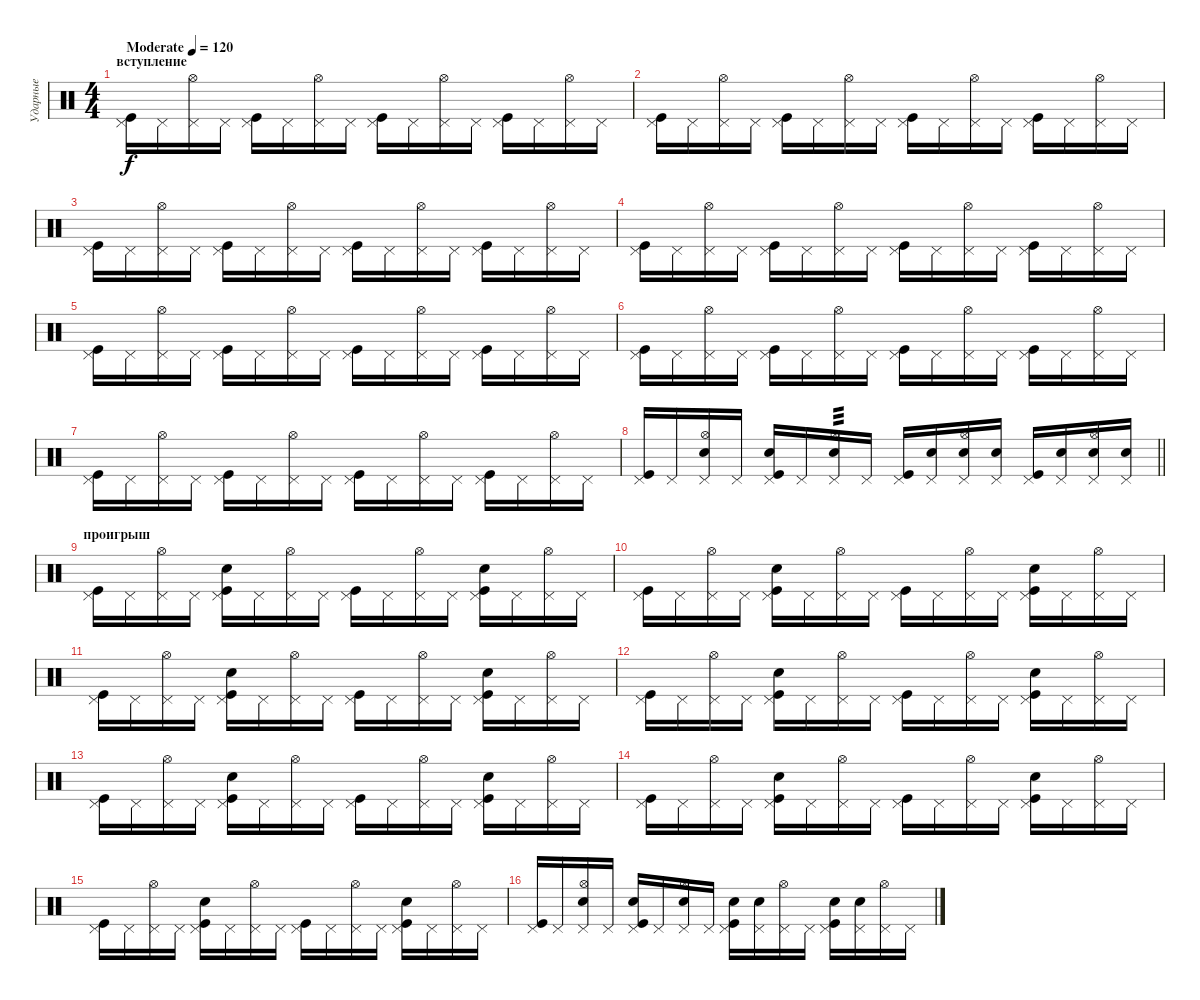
\track ("Ударные" "Ударные") {instrument percussion}
\staff {score}
\articulation defaults
\ts (4 4)
\section ("" "вступление")
\tempo (120 "Moderate")
\clef neutral
\ks c
("Pedal Hi-Hat (hit)" "Kick (hit)").16{dy f} "Pedal Hi-Hat (hit)".16 ("Pedal Hi-Hat (hit)" "Hi-Hat (open)").16 "Pedal Hi-Hat (hit)".16 ("Pedal Hi-Hat (hit)" "Kick (hit)").16 "Pedal Hi-Hat (hit)".16 ("Pedal Hi-Hat (hit)" "Hi-Hat (open)").16 "Pedal Hi-Hat (hit)".16 ("Pedal Hi-Hat (hit)" "Kick (hit)").16 "Pedal Hi-Hat (hit)".16 ("Pedal Hi-Hat (hit)" "Hi-Hat (open)").16 "Pedal Hi-Hat (hit)".16 ("Pedal Hi-Hat (hit)" "Kick (hit)").16 "Pedal Hi-Hat (hit)".16 ("Pedal Hi-Hat (hit)" "Hi-Hat (open)").16 "Pedal Hi-Hat (hit)".16 |
("Pedal Hi-Hat (hit)" "Kick (hit)").16 "Pedal Hi-Hat (hit)".16 ("Pedal Hi-Hat (hit)" "Hi-Hat (open)").16 "Pedal Hi-Hat (hit)".16 ("Pedal Hi-Hat (hit)" "Kick (hit)").16 "Pedal Hi-Hat (hit)".16 ("Pedal Hi-Hat (hit)" "Hi-Hat (open)").16 "Pedal Hi-Hat (hit)".16 ("Pedal Hi-Hat (hit)" "Kick (hit)").16 "Pedal Hi-Hat (hit)".16 ("Pedal Hi-Hat (hit)" "Hi-Hat (open)").16 "Pedal Hi-Hat (hit)".16 ("Pedal Hi-Hat (hit)" "Kick (hit)").16 "Pedal Hi-Hat (hit)".16 ("Pedal Hi-Hat (hit)" "Hi-Hat (open)").16 "Pedal Hi-Hat (hit)".16 |
("Pedal Hi-Hat (hit)" "Kick (hit)").16 "Pedal Hi-Hat (hit)".16 ("Pedal Hi-Hat (hit)" "Hi-Hat (open)").16 "Pedal Hi-Hat (hit)".16 ("Pedal Hi-Hat (hit)" "Kick (hit)").16 "Pedal Hi-Hat (hit)".16 ("Pedal Hi-Hat (hit)" "Hi-Hat (open)").16 "Pedal Hi-Hat (hit)".16 ("Pedal Hi-Hat (hit)" "Kick (hit)").16 "Pedal Hi-Hat (hit)".16 ("Pedal Hi-Hat (hit)" "Hi-Hat (open)").16 "Pedal Hi-Hat (hit)".16 ("Pedal Hi-Hat (hit)" "Kick (hit)").16 "Pedal Hi-Hat (hit)".16 ("Pedal Hi-Hat (hit)" "Hi-Hat (open)").16 "Pedal Hi-Hat (hit)".16 |
("Pedal Hi-Hat (hit)" "Kick (hit)").16 "Pedal Hi-Hat (hit)".16 ("Pedal Hi-Hat (hit)" "Hi-Hat (open)").16 "Pedal Hi-Hat (hit)".16 ("Pedal Hi-Hat (hit)" "Kick (hit)").16 "Pedal Hi-Hat (hit)".16 ("Pedal Hi-Hat (hit)" "Hi-Hat (open)").16 "Pedal Hi-Hat (hit)".16 ("Pedal Hi-Hat (hit)" "Kick (hit)").16 "Pedal Hi-Hat (hit)".16 ("Pedal Hi-Hat (hit)" "Hi-Hat (open)").16 "Pedal Hi-Hat (hit)".16 ("Pedal Hi-Hat (hit)" "Kick (hit)").16 "Pedal Hi-Hat (hit)".16 ("Pedal Hi-Hat (hit)" "Hi-Hat (open)").16 "Pedal Hi-Hat (hit)".16 |
("Pedal Hi-Hat (hit)" "Kick (hit)").16 "Pedal Hi-Hat (hit)".16 ("Pedal Hi-Hat (hit)" "Hi-Hat (open)").16 "Pedal Hi-Hat (hit)".16 ("Pedal Hi-Hat (hit)" "Kick (hit)").16 "Pedal Hi-Hat (hit)".16 ("Pedal Hi-Hat (hit)" "Hi-Hat (open)").16 "Pedal Hi-Hat (hit)".16 ("Pedal Hi-Hat (hit)" "Kick (hit)").16 "Pedal Hi-Hat (hit)".16 ("Pedal Hi-Hat (hit)" "Hi-Hat (open)").16 "Pedal Hi-Hat (hit)".16 ("Pedal Hi-Hat (hit)" "Kick (hit)").16 "Pedal Hi-Hat (hit)".16 ("Pedal Hi-Hat (hit)" "Hi-Hat (open)").16 "Pedal Hi-Hat (hit)".16 |
("Pedal Hi-Hat (hit)" "Kick (hit)").16 "Pedal Hi-Hat (hit)".16 ("Pedal Hi-Hat (hit)" "Hi-Hat (open)").16 "Pedal Hi-Hat (hit)".16 ("Pedal Hi-Hat (hit)" "Kick (hit)").16 "Pedal Hi-Hat (hit)".16 ("Pedal Hi-Hat (hit)" "Hi-Hat (open)").16 "Pedal Hi-Hat (hit)".16 ("Pedal Hi-Hat (hit)" "Kick (hit)").16 "Pedal Hi-Hat (hit)".16 ("Pedal Hi-Hat (hit)" "Hi-Hat (open)").16 "Pedal Hi-Hat (hit)".16 ("Pedal Hi-Hat (hit)" "Kick (hit)").16 "Pedal Hi-Hat (hit)".16 ("Pedal Hi-Hat (hit)" "Hi-Hat (open)").16 "Pedal Hi-Hat (hit)".16 |
("Pedal Hi-Hat (hit)" "Kick (hit)").16 "Pedal Hi-Hat (hit)".16 ("Pedal Hi-Hat (hit)" "Hi-Hat (open)").16 "Pedal Hi-Hat (hit)".16 ("Pedal Hi-Hat (hit)" "Kick (hit)").16 "Pedal Hi-Hat (hit)".16 ("Pedal Hi-Hat (hit)" "Hi-Hat (open)").16 "Pedal Hi-Hat (hit)".16 ("Pedal Hi-Hat (hit)" "Kick (hit)").16 "Pedal Hi-Hat (hit)".16 ("Pedal Hi-Hat (hit)" "Hi-Hat (open)").16 "Pedal Hi-Hat (hit)".16 ("Pedal Hi-Hat (hit)" "Kick (hit)").16 "Pedal Hi-Hat (hit)".16 ("Pedal Hi-Hat (hit)" "Hi-Hat (open)").16 "Pedal Hi-Hat (hit)".16 |
\barLineRight lightlight
("Pedal Hi-Hat (hit)" "Kick (hit)").16 "Pedal Hi-Hat (hit)".16 ("Pedal Hi-Hat (hit)" "Hi-Hat (open)" "Snare (hit) 2").16 "Pedal Hi-Hat (hit)".16 ("Pedal Hi-Hat (hit)" "Kick (hit)" "Snare (hit) 2").16 "Pedal Hi-Hat (hit)".16 ("Pedal Hi-Hat (hit)" "Hi-Hat (open)" "Snare (hit) 2").16{tp 3} "Pedal Hi-Hat (hit)".16 ("Pedal Hi-Hat (hit)" "Kick (hit)").16 ("Pedal Hi-Hat (hit)" "Snare (hit) 2").16 ("Pedal Hi-Hat (hit)" "Hi-Hat (open)" "Snare (hit) 2").16 ("Pedal Hi-Hat (hit)" "Snare (hit) 2").16 ("Pedal Hi-Hat (hit)" "Kick (hit)").16 ("Pedal Hi-Hat (hit)" "Snare (hit) 2").16 ("Pedal Hi-Hat (hit)" "Hi-Hat (open)" "Snare (hit) 2").16 ("Pedal Hi-Hat (hit)" "Snare (hit) 2").16 |
\section ("" "проигрыш")
("Pedal Hi-Hat (hit)" "Kick (hit)").16 "Pedal Hi-Hat (hit)".16 ("Pedal Hi-Hat (hit)" "Hi-Hat (open)").16 "Pedal Hi-Hat (hit)".16 ("Pedal Hi-Hat (hit)" "Kick (hit)" "Snare (hit) 2").16 "Pedal Hi-Hat (hit)".16 ("Pedal Hi-Hat (hit)" "Hi-Hat (open)").16 "Pedal Hi-Hat (hit)".16 ("Pedal Hi-Hat (hit)" "Kick (hit)").16 "Pedal Hi-Hat (hit)".16 ("Pedal Hi-Hat (hit)" "Hi-Hat (open)").16 "Pedal Hi-Hat (hit)".16 ("Pedal Hi-Hat (hit)" "Kick (hit)" "Snare (hit) 2").16 "Pedal Hi-Hat (hit)".16 ("Pedal Hi-Hat (hit)" "Hi-Hat (open)").16 "Pedal Hi-Hat (hit)".16 |
("Pedal Hi-Hat (hit)" "Kick (hit)").16 "Pedal Hi-Hat (hit)".16 ("Pedal Hi-Hat (hit)" "Hi-Hat (open)").16 "Pedal Hi-Hat (hit)".16 ("Pedal Hi-Hat (hit)" "Kick (hit)" "Snare (hit) 2").16 "Pedal Hi-Hat (hit)".16 ("Pedal Hi-Hat (hit)" "Hi-Hat (open)").16 "Pedal Hi-Hat (hit)".16 ("Pedal Hi-Hat (hit)" "Kick (hit)").16 "Pedal Hi-Hat (hit)".16 ("Pedal Hi-Hat (hit)" "Hi-Hat (open)").16 "Pedal Hi-Hat (hit)".16 ("Pedal Hi-Hat (hit)" "Kick (hit)" "Snare (hit) 2").16 "Pedal Hi-Hat (hit)".16 ("Pedal Hi-Hat (hit)" "Hi-Hat (open)").16 "Pedal Hi-Hat (hit)".16 |
("Pedal Hi-Hat (hit)" "Kick (hit)").16 "Pedal Hi-Hat (hit)".16 ("Pedal Hi-Hat (hit)" "Hi-Hat (open)").16 "Pedal Hi-Hat (hit)".16 ("Pedal Hi-Hat (hit)" "Kick (hit)" "Snare (hit) 2").16 "Pedal Hi-Hat (hit)".16 ("Pedal Hi-Hat (hit)" "Hi-Hat (open)").16 "Pedal Hi-Hat (hit)".16 ("Pedal Hi-Hat (hit)" "Kick (hit)").16 "Pedal Hi-Hat (hit)".16 ("Pedal Hi-Hat (hit)" "Hi-Hat (open)").16 "Pedal Hi-Hat (hit)".16 ("Pedal Hi-Hat (hit)" "Kick (hit)" "Snare (hit) 2").16 "Pedal Hi-Hat (hit)".16 ("Pedal Hi-Hat (hit)" "Hi-Hat (open)").16 "Pedal Hi-Hat (hit)".16 |
("Pedal Hi-Hat (hit)" "Kick (hit)").16 "Pedal Hi-Hat (hit)".16 ("Pedal Hi-Hat (hit)" "Hi-Hat (open)").16 "Pedal Hi-Hat (hit)".16 ("Pedal Hi-Hat (hit)" "Kick (hit)" "Snare (hit) 2").16 "Pedal Hi-Hat (hit)".16 ("Pedal Hi-Hat (hit)" "Hi-Hat (open)").16 "Pedal Hi-Hat (hit)".16 ("Pedal Hi-Hat (hit)" "Kick (hit)").16 "Pedal Hi-Hat (hit)".16 ("Pedal Hi-Hat (hit)" "Hi-Hat (open)").16 "Pedal Hi-Hat (hit)".16 ("Pedal Hi-Hat (hit)" "Kick (hit)" "Snare (hit) 2").16 "Pedal Hi-Hat (hit)".16 ("Pedal Hi-Hat (hit)" "Hi-Hat (open)").16 "Pedal Hi-Hat (hit)".16 |
("Pedal Hi-Hat (hit)" "Kick (hit)").16 "Pedal Hi-Hat (hit)".16 ("Pedal Hi-Hat (hit)" "Hi-Hat (open)").16 "Pedal Hi-Hat (hit)".16 ("Pedal Hi-Hat (hit)" "Kick (hit)" "Snare (hit) 2").16 "Pedal Hi-Hat (hit)".16 ("Pedal Hi-Hat (hit)" "Hi-Hat (open)").16 "Pedal Hi-Hat (hit)".16 ("Pedal Hi-Hat (hit)" "Kick (hit)").16 "Pedal Hi-Hat (hit)".16 ("Pedal Hi-Hat (hit)" "Hi-Hat (open)").16 "Pedal Hi-Hat (hit)".16 ("Pedal Hi-Hat (hit)" "Kick (hit)" "Snare (hit) 2").16 "Pedal Hi-Hat (hit)".16 ("Pedal Hi-Hat (hit)" "Hi-Hat (open)").16 "Pedal Hi-Hat (hit)".16 |
("Pedal Hi-Hat (hit)" "Kick (hit)").16 "Pedal Hi-Hat (hit)".16 ("Pedal Hi-Hat (hit)" "Hi-Hat (open)").16 "Pedal Hi-Hat (hit)".16 ("Pedal Hi-Hat (hit)" "Kick (hit)" "Snare (hit) 2").16 "Pedal Hi-Hat (hit)".16 ("Pedal Hi-Hat (hit)" "Hi-Hat (open)").16 "Pedal Hi-Hat (hit)".16 ("Pedal Hi-Hat (hit)" "Kick (hit)").16 "Pedal Hi-Hat (hit)".16 ("Pedal Hi-Hat (hit)" "Hi-Hat (open)").16 "Pedal Hi-Hat (hit)".16 ("Pedal Hi-Hat (hit)" "Kick (hit)" "Snare (hit) 2").16 "Pedal Hi-Hat (hit)".16 ("Pedal Hi-Hat (hit)" "Hi-Hat (open)").16 "Pedal Hi-Hat (hit)".16 |
("Pedal Hi-Hat (hit)" "Kick (hit)").16 "Pedal Hi-Hat (hit)".16 ("Pedal Hi-Hat (hit)" "Hi-Hat (open)").16 "Pedal Hi-Hat (hit)".16 ("Pedal Hi-Hat (hit)" "Kick (hit)" "Snare (hit) 2").16 "Pedal Hi-Hat (hit)".16 ("Pedal Hi-Hat (hit)" "Hi-Hat (open)").16 "Pedal Hi-Hat (hit)".16 ("Pedal Hi-Hat (hit)" "Kick (hit)").16 "Pedal Hi-Hat (hit)".16 ("Pedal Hi-Hat (hit)" "Hi-Hat (open)").16 "Pedal Hi-Hat (hit)".16 ("Pedal Hi-Hat (hit)" "Kick (hit)" "Snare (hit) 2").16 "Pedal Hi-Hat (hit)".16 ("Pedal Hi-Hat (hit)" "Hi-Hat (open)").16 "Pedal Hi-Hat (hit)".16 |
("Pedal Hi-Hat (hit)" "Kick (hit)").16 "Pedal Hi-Hat (hit)".16 ("Pedal Hi-Hat (hit)" "Hi-Hat (open)" "Snare (hit) 2").16 "Pedal Hi-Hat (hit)".16 ("Pedal Hi-Hat (hit)" "Kick (hit)" "Snare (hit) 2").16 "Pedal Hi-Hat (hit)".16 ("Pedal Hi-Hat (hit)" "Hi-Hat (open)" "Snare (hit) 2").16 "Pedal Hi-Hat (hit)".16 ("Pedal Hi-Hat (hit)" "Kick (hit)" "Snare (hit) 2").16 ("Pedal Hi-Hat (hit)" "Snare (hit) 2").16 ("Pedal Hi-Hat (hit)" "Hi-Hat (open)").16 "Pedal Hi-Hat (hit)".16 ("Pedal Hi-Hat (hit)" "Kick (hit)" "Snare (hit) 2").16 ("Pedal Hi-Hat (hit)" "Snare (hit) 2").16 ("Pedal Hi-Hat (hit)" "Hi-Hat (open)").16 "Pedal Hi-Hat (hit)".16
